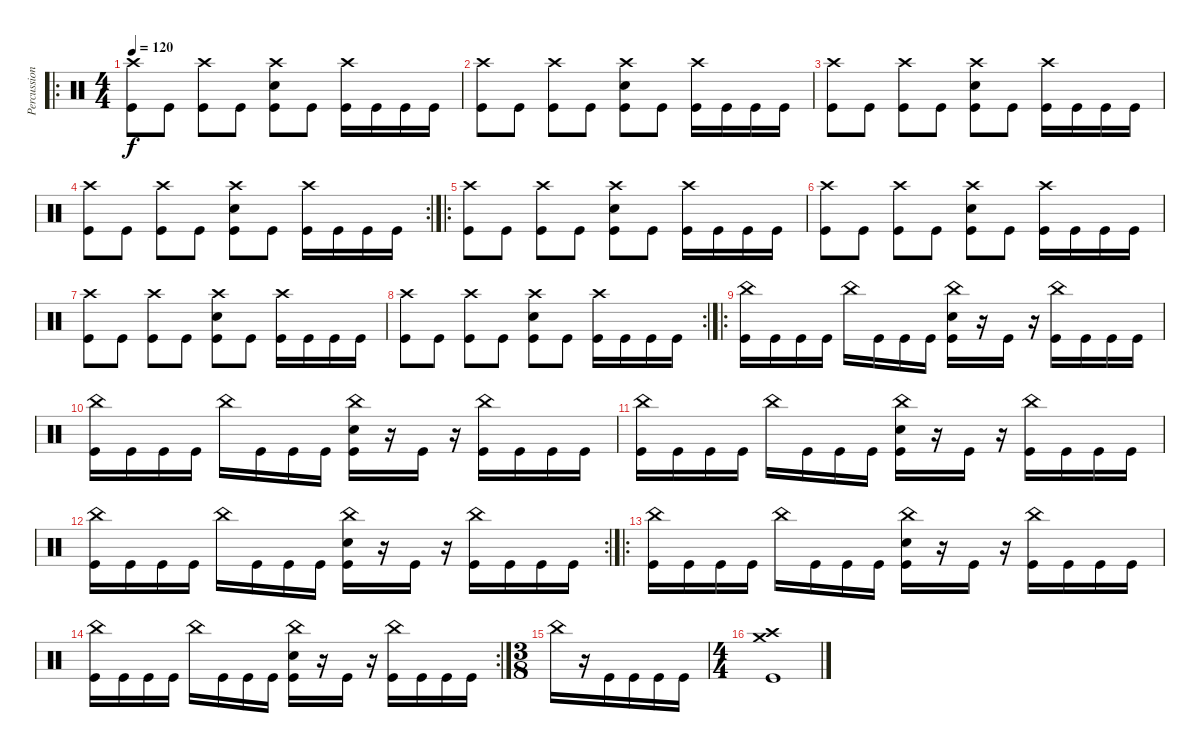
\track ("Percussion" "Percussion") {instrument percussion}
\staff {score}
\articulation defaults
\ro
\ts (4 4)
\tempo 120
\clef neutral
\ks c
("Crash high (hit)" "Kick (hit)").8{dy f} "Kick (hit)".8 ("Crash high (hit)" "Kick (hit)").8 "Kick (hit)".8 ("Crash high (hit)" "Snare (hit) 2" "Kick (hit)").8 "Kick (hit)".8 ("Crash high (hit)" "Kick (hit)").16 "Kick (hit)".16 "Kick (hit)".16 "Kick (hit)".16 |
("Crash high (hit)" "Kick (hit)").8 "Kick (hit)".8 ("Crash high (hit)" "Kick (hit)").8 "Kick (hit)".8 ("Crash high (hit)" "Snare (hit) 2" "Kick (hit)").8 "Kick (hit)".8 ("Crash high (hit)" "Kick (hit)").16 "Kick (hit)".16 "Kick (hit)".16 "Kick (hit)".16 |
("Crash high (hit)" "Kick (hit)").8 "Kick (hit)".8 ("Crash high (hit)" "Kick (hit)").8 "Kick (hit)".8 ("Crash high (hit)" "Snare (hit) 2" "Kick (hit)").8 "Kick (hit)".8 ("Crash high (hit)" "Kick (hit)").16 "Kick (hit)".16 "Kick (hit)".16 "Kick (hit)".16 |
\rc 2
("Crash high (hit)" "Kick (hit)").8 "Kick (hit)".8 ("Crash high (hit)" "Kick (hit)").8 "Kick (hit)".8 ("Crash high (hit)" "Snare (hit) 2" "Kick (hit)").8 "Kick (hit)".8 ("Crash high (hit)" "Kick (hit)").16 "Kick (hit)".16 "Kick (hit)".16 "Kick (hit)".16 |
\ro
("Crash high (hit)" "Kick (hit)").8 "Kick (hit)".8 ("Crash high (hit)" "Kick (hit)").8 "Kick (hit)".8 ("Crash high (hit)" "Snare (hit) 2" "Kick (hit)").8 "Kick (hit)".8 ("Crash high (hit)" "Kick (hit)").16 "Kick (hit)".16 "Kick (hit)".16 "Kick (hit)".16 |
("Crash high (hit)" "Kick (hit)").8 "Kick (hit)".8 ("Crash high (hit)" "Kick (hit)").8 "Kick (hit)".8 ("Crash high (hit)" "Snare (hit) 2" "Kick (hit)").8 "Kick (hit)".8 ("Crash high (hit)" "Kick (hit)").16 "Kick (hit)".16 "Kick (hit)".16 "Kick (hit)".16 |
("Crash high (hit)" "Kick (hit)").8 "Kick (hit)".8 ("Crash high (hit)" "Kick (hit)").8 "Kick (hit)".8 ("Crash high (hit)" "Snare (hit) 2" "Kick (hit)").8 "Kick (hit)".8 ("Crash high (hit)" "Kick (hit)").16 "Kick (hit)".16 "Kick (hit)".16 "Kick (hit)".16 |
\rc 2
("Crash high (hit)" "Kick (hit)").8 "Kick (hit)".8 ("Crash high (hit)" "Kick (hit)").8 "Kick (hit)".8 ("Crash high (hit)" "Snare (hit) 2" "Kick (hit)").8 "Kick (hit)".8 ("Crash high (hit)" "Kick (hit)").16 "Kick (hit)".16 "Kick (hit)".16 "Kick (hit)".16 |
\ro
("China (hit)" "Kick (hit)").16 "Kick (hit)".16 "Kick (hit)".16 "Kick (hit)".16 "China (hit)".16 "Kick (hit)".16 "Kick (hit)".16 "Kick (hit)".16 ("China (hit)" "Snare (hit) 2" "Kick (hit)").16 r.16 "Kick (hit)".16 r.16 ("China (hit)" "Kick (hit)").16 "Kick (hit)".16 "Kick (hit)".16 "Kick (hit)".16 |
("China (hit)" "Kick (hit)").16 "Kick (hit)".16 "Kick (hit)".16 "Kick (hit)".16 "China (hit)".16 "Kick (hit)".16 "Kick (hit)".16 "Kick (hit)".16 ("China (hit)" "Snare (hit) 2" "Kick (hit)").16 r.16 "Kick (hit)".16 r.16 ("China (hit)" "Kick (hit)").16 "Kick (hit)".16 "Kick (hit)".16 "Kick (hit)".16 |
("China (hit)" "Kick (hit)").16 "Kick (hit)".16 "Kick (hit)".16 "Kick (hit)".16 "China (hit)".16 "Kick (hit)".16 "Kick (hit)".16 "Kick (hit)".16 ("China (hit)" "Snare (hit) 2" "Kick (hit)").16 r.16 "Kick (hit)".16 r.16 ("China (hit)" "Kick (hit)").16 "Kick (hit)".16 "Kick (hit)".16 "Kick (hit)".16 |
\rc 2
("China (hit)" "Kick (hit)").16 "Kick (hit)".16 "Kick (hit)".16 "Kick (hit)".16 "China (hit)".16 "Kick (hit)".16 "Kick (hit)".16 "Kick (hit)".16 ("China (hit)" "Snare (hit) 2" "Kick (hit)").16 r.16 "Kick (hit)".16 r.16 ("China (hit)" "Kick (hit)").16 "Kick (hit)".16 "Kick (hit)".16 "Kick (hit)".16 |
\ro
("China (hit)" "Kick (hit)").16 "Kick (hit)".16 "Kick (hit)".16 "Kick (hit)".16 "China (hit)".16 "Kick (hit)".16 "Kick (hit)".16 "Kick (hit)".16 ("China (hit)" "Snare (hit) 2" "Kick (hit)").16 r.16 "Kick (hit)".16 r.16 ("China (hit)" "Kick (hit)").16 "Kick (hit)".16 "Kick (hit)".16 "Kick (hit)".16 |
\rc 2
("China (hit)" "Kick (hit)").16 "Kick (hit)".16 "Kick (hit)".16 "Kick (hit)".16 "China (hit)".16 "Kick (hit)".16 "Kick (hit)".16 "Kick (hit)".16 ("China (hit)" "Snare (hit) 2" "Kick (hit)").16 r.16 "Kick (hit)".16 r.16 ("China (hit)" "Kick (hit)").16 "Kick (hit)".16 "Kick (hit)".16 "Kick (hit)".16 |
\ts (3 8)
"China (hit)".16 r.16 "Kick (hit)".16 "Kick (hit)".16 "Kick (hit)".16 "Kick (hit)".16 |
\ts (4 4)
("Crash medium (hit)" "Crash high (hit)" "Kick (hit)").1
